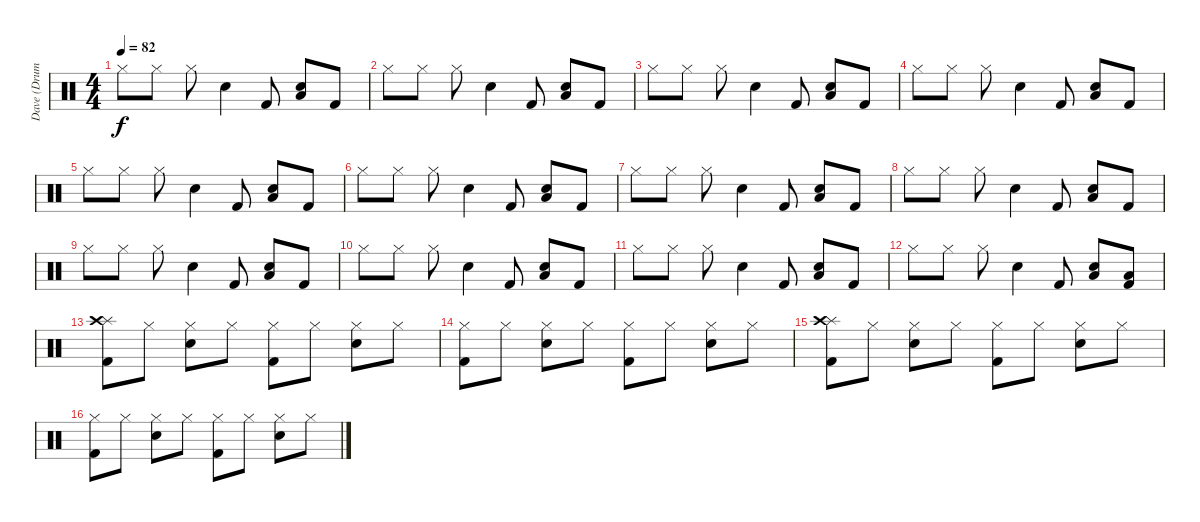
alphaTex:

\track ("Dave (Drums)" "Dave (Drum") {instrument percussion}
\staff {score}
\articulation defaults
\ts (4 4)
\tempo 82
\clef neutral
\ks c "Hi-Hat (closed)".8{dy f} "Hi-Hat (closed)".8 "Hi-Hat (closed)".8 "Snare (hit) 2".4 "Kick (hit) 2".8
("Snare (hit) 2" "Low Tom (hit)").8 "Kick (hit) 2".8 |
"Hi-Hat (closed)".8 "Hi-Hat (closed)".8 "Hi-Hat (closed)".8 "Snare (hit) 2".4 "Kick (hit) 2".8 ("Snare (hit) 2" "Low Tom (hit)").8 "Kick (hit) 2".8 |
"Hi-Hat (closed)".8 "Hi-Hat (closed)".8 "Hi-Hat (closed)".8 "Snare (hit) 2".4 "Kick (hit) 2".8 ("Snare (hit) 2" "Low Tom (hit)").8 "Kick (hit) 2".8 |
"Hi-Hat (closed)".8 "Hi-Hat (closed)".8 "Hi-Hat (closed)".8 "Snare (hit) 2".4 "Kick (hit) 2".8 ("Snare (hit) 2" "Low Tom (hit)").8 "Kick (hit) 2".8 |
"Hi-Hat (closed)".8 "Hi-Hat (closed)".8 "Hi-Hat (closed)".8 "Snare (hit) 2".4 "Kick (hit) 2".8 ("Snare (hit) 2" "Low Tom (hit)").8 "Kick (hit) 2".8 |
"Hi-Hat (closed)".8 "Hi-Hat (closed)".8 "Hi-Hat (closed)".8 "Snare (hit) 2".4 "Kick (hit) 2".8 ("Snare (hit) 2" "Low Tom (hit)").8 "Kick (hit) 2".8 |
"Hi-Hat (closed)".8 "Hi-Hat (closed)".8 "Hi-Hat (closed)".8 "Snare (hit) 2".4 "Kick (hit) 2".8 ("Snare (hit) 2" "Low Tom (hit)").8 "Kick (hit) 2".8 |
"Hi-Hat (closed)".8 "Hi-Hat (closed)".8 "Hi-Hat (closed)".8 "Snare (hit) 2".4 "Kick (hit) 2".8 ("Snare (hit) 2" "Low Tom (hit)").8 "Kick (hit) 2".8 |
"Hi-Hat (closed)".8 "Hi-Hat (closed)".8 "Hi-Hat (closed)".8 "Snare (hit) 2".4 "Kick (hit) 2".8 ("Snare (hit) 2" "Low Tom (hit)").8 "Kick (hit) 2".8 |
"Hi-Hat (closed)".8 "Hi-Hat (closed)".8 "Hi-Hat (closed)".8 "Snare (hit) 2".4 "Kick (hit) 2".8 ("Snare (hit) 2" "Low Tom (hit)").8 "Kick (hit) 2".8 |
"Hi-Hat (closed)".8 "Hi-Hat (closed)".8 "Hi-Hat (closed)".8 "Snare (hit) 2".4 "Kick (hit) 2".8 ("Snare (hit) 2" "Low Tom (hit)").8 "Kick (hit) 2".8 |
"Hi-Hat (closed)".8 "Hi-Hat (closed)".8 "Hi-Hat (closed)".8 "Snare (hit) 2".4 "Kick (hit) 2".8 ("Snare (hit) 2" "Low Tom (hit)").8 ("Kick (hit) 2" "Low Tom (hit)").8 |
("Splash (hit)" "Crash high (hit)" "Kick (hit) 2").8 "Hi-Hat (closed)".8 ("Hi-Hat (closed)" "Snare (hit) 2").8 "Hi-Hat (closed)".8 ("Hi-Hat (closed)" "Kick (hit) 2").8 "Hi-Hat (closed)".8 ("Hi-Hat (closed)" "Snare (hit) 2").8 "Hi-Hat (closed)".8 |
("Hi-Hat (closed)" "Kick (hit) 2").8 "Hi-Hat (closed)".8 ("Hi-Hat (closed)" "Snare (hit) 2").8 "Hi-Hat (closed)".8 ("Hi-Hat (closed)" "Kick (hit) 2").8 "Hi-Hat (closed)".8 ("Hi-Hat (closed)" "Snare (hit) 2").8 "Hi-Hat (closed)".8 |
("Splash (hit)" "Crash high (hit)" "Kick (hit) 2").8 "Hi-Hat (closed)".8 ("Hi-Hat (closed)" "Snare (hit) 2").8 "Hi-Hat (closed)".8 ("Hi-Hat (closed)" "Kick (hit) 2").8 "Hi-Hat (closed)".8 ("Hi-Hat (closed)" "Snare (hit) 2").8 "Hi-Hat (closed)".8 |
("Hi-Hat (closed)" "Kick (hit) 2").8 "Hi-Hat (closed)".8 ("Hi-Hat (closed)" "Snare (hit) 2").8 "Hi-Hat (closed)".8 ("Hi-Hat (closed)" "Kick (hit) 2").8 "Hi-Hat (closed)".8 ("Hi-Hat (closed)" "Snare (hit) 2").8 "Hi-Hat (closed)".8
